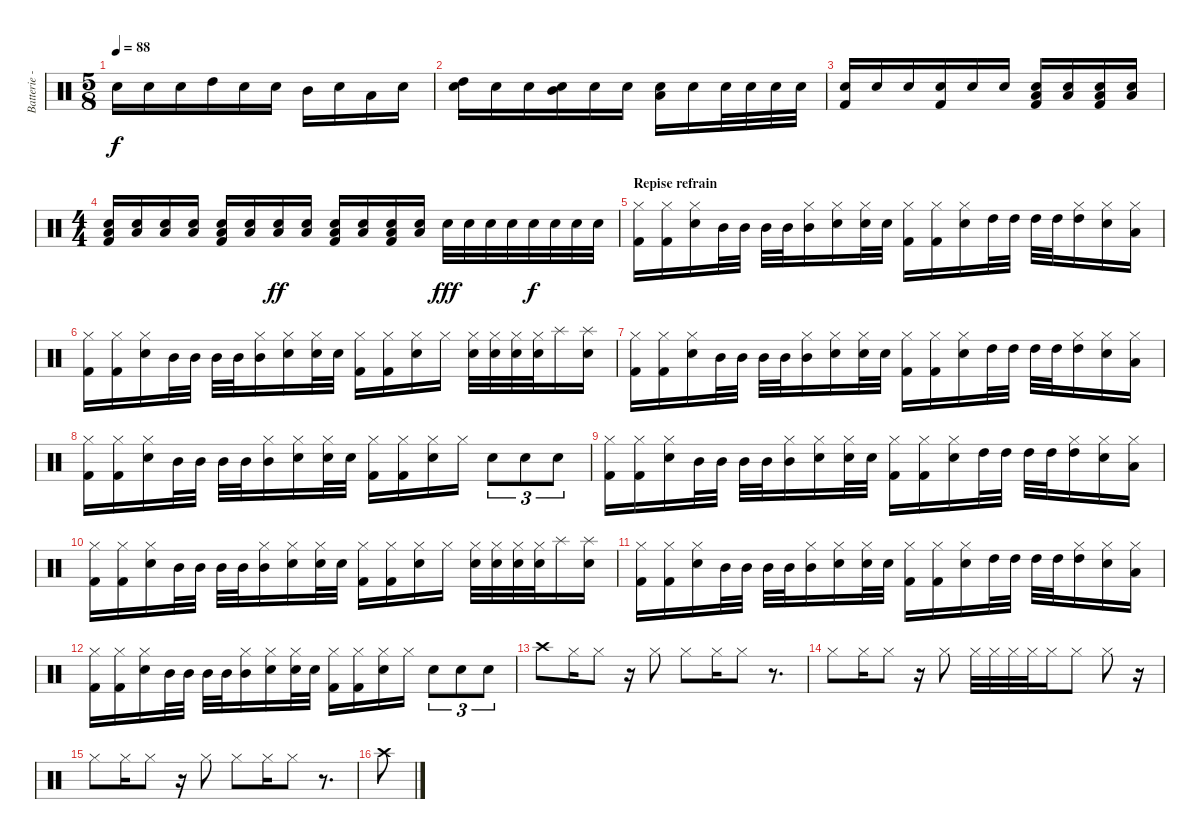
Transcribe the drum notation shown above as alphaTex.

\track ("Batterie - Franz'" "Batterie -") {instrument percussion}
\staff {score}
\articulation defaults
\ts (5 8)
\tempo 88
\clef neutral
\ks c "Electric Snare (hit)".16{dy f} "Electric Snare (hit)".16 "Electric Snare (hit)".16 "High Tom (hit)".16 "Electric Snare (hit)".16 "Electric Snare (hit)".16 "Mid Tom (hit)".16 "Electric Snare (hit)".16 "Low Tom (hit)".16 "Electric Snare (hit)".16
|
("High Tom (hit)" "Electric Snare (hit)").16 "Electric Snare (hit)".16 "Electric Snare (hit)".16 ("Mid Tom (hit)" "Electric Snare (hit)").16 "Electric Snare (hit)".16 "Electric Snare (hit)".16 ("Electric Snare (hit)" "Low Tom (hit)").16 "Electric Snare (hit)".16 "Electric Snare (hit)".32 "Electric Snare (hit)".32 "Electric Snare (hit)".32 "Electric Snare (hit)".32 |
("Electric Snare (hit)" "Kick (hit) 2").16 "Electric Snare (hit)".16 "Electric Snare (hit)".16 ("Electric Snare (hit)" "Kick (hit) 2").16 "Electric Snare (hit)".16 "Electric Snare (hit)".16 ("Electric Snare (hit)" "Low Tom (hit)" "Kick (hit) 2").16 ("Electric Snare (hit)" "Low Tom (hit)").16 ("Electric Snare (hit)" "Low Tom (hit)" "Kick (hit) 2").16 ("Electric Snare (hit)" "Low Tom (hit)").16 |
\ts (4 4)
("Electric Snare (hit)" "Low Tom (hit)" "Kick (hit) 2").16 ("Electric Snare (hit)" "Low Tom (hit)").16 ("Electric Snare (hit)" "Low Tom (hit)").16 ("Electric Snare (hit)" "Low Tom (hit)").16 ("Electric Snare (hit)" "Low Tom (hit)" "Kick (hit) 2").16 ("Electric Snare (hit)" "Low Tom (hit)").16 ("Electric Snare (hit)" "Low Tom (hit)").16{dy ff} ("Electric Snare (hit)" "Low Tom (hit)").16 ("Electric Snare (hit)" "Low Tom (hit)" "Kick (hit) 2").16 ("Electric Snare (hit)" "Low Tom (hit)").16 ("Electric Snare (hit)" "Low Tom (hit)" "Kick (hit) 2").16 ("Electric Snare (hit)" "Low Tom (hit)").16 "Electric Snare (hit)".32{dy fff} "Electric Snare (hit)".32 "Electric Snare (hit)".32 "Electric Snare (hit)".32 "Electric Snare (hit)".32{dy f} "Electric Snare (hit)".32 "Electric Snare (hit)".32 "Electric Snare (hit)".32 |
\section ("" "Repise refrain")
("Hi-Hat (closed)" "Kick (hit) 2").16 ("Hi-Hat (closed)" "Kick (hit) 2").16 ("Hi-Hat (closed)" "Electric Snare (hit)").16 "Mid Tom (hit)".32 "Mid Tom (hit)".32 "Mid Tom (hit)".32 "Mid Tom (hit)".32 ("Hi-Hat (closed)" "Mid Tom (hit)").16 ("Hi-Hat (closed)" "Electric Snare (hit)").16 ("Hi-Hat (closed)" "Electric Snare (hit)").32 "Electric Snare (hit)".32 ("Hi-Hat (closed)" "Kick (hit) 2").16 ("Hi-Hat (closed)" "Kick (hit) 2").16 ("Hi-Hat (closed)" "Electric Snare (hit)").16 "High Tom (hit)".32 "High Tom (hit)".32 "High Tom (hit)".32 "High Tom (hit)".32 ("Hi-Hat (closed)" "High Tom (hit)").16 ("Hi-Hat (closed)" "Electric Snare (hit)").16 ("Hi-Hat (closed)" "Low Tom (hit)").16 |
("Hi-Hat (closed)" "Kick (hit) 2").16 ("Hi-Hat (closed)" "Kick (hit) 2").16 ("Hi-Hat (closed)" "Electric Snare (hit)").16 "Mid Tom (hit)".32 "Mid Tom (hit)".32 "Mid Tom (hit)".32 "Mid Tom (hit)".32 ("Hi-Hat (closed)" "Mid Tom (hit)").16 ("Hi-Hat (closed)" "Electric Snare (hit)").16 ("Hi-Hat (closed)" "Electric Snare (hit)").32 "Electric Snare (hit)".32 ("Hi-Hat (closed)" "Kick (hit) 2").16 ("Hi-Hat (closed)" "Kick (hit) 2").16 ("Hi-Hat (closed)" "Electric Snare (hit)").16 "Hi-Hat (closed)".16 ("Hi-Hat (closed)" "Electric Snare (hit)").32 ("Hi-Hat (closed)" "Electric Snare (hit)").32 ("Hi-Hat (closed)" "Electric Snare (hit)").32 ("Hi-Hat (closed)" "Electric Snare (hit)").32 "Splash (hit)".16 ("Splash (hit)" "Electric Snare (hit)").16 |
("Hi-Hat (closed)" "Kick (hit) 2").16 ("Hi-Hat (closed)" "Kick (hit) 2").16 ("Hi-Hat (closed)" "Electric Snare (hit)").16 "Mid Tom (hit)".32 "Mid Tom (hit)".32 "Mid Tom (hit)".32 "Mid Tom (hit)".32 ("Hi-Hat (closed)" "Mid Tom (hit)").16 ("Hi-Hat (closed)" "Electric Snare (hit)").16 ("Hi-Hat (closed)" "Electric Snare (hit)").32 "Electric Snare (hit)".32 ("Hi-Hat (closed)" "Kick (hit) 2").16 ("Hi-Hat (closed)" "Kick (hit) 2").16 ("Hi-Hat (closed)" "Electric Snare (hit)").16 "High Tom (hit)".32 "High Tom (hit)".32 "High Tom (hit)".32 "High Tom (hit)".32 ("Hi-Hat (closed)" "High Tom (hit)").16 ("Hi-Hat (closed)" "Electric Snare (hit)").16 ("Hi-Hat (closed)" "Low Tom (hit)").16 |
("Hi-Hat (closed)" "Kick (hit) 2").16 ("Hi-Hat (closed)" "Kick (hit) 2").16 ("Hi-Hat (closed)" "Electric Snare (hit)").16 "Mid Tom (hit)".32 "Mid Tom (hit)".32 "Mid Tom (hit)".32 "Mid Tom (hit)".32 ("Hi-Hat (closed)" "Mid Tom (hit)").16 ("Hi-Hat (closed)" "Electric Snare (hit)").16 ("Hi-Hat (closed)" "Electric Snare (hit)").32 "Electric Snare (hit)".32 ("Hi-Hat (closed)" "Kick (hit) 2").16 ("Hi-Hat (closed)" "Kick (hit) 2").16 ("Hi-Hat (closed)" "Electric Snare (hit)").16 "Hi-Hat (closed)".16 "Electric Snare (hit)".8{tu (3 2)} "Electric Snare (hit)".8{tu (3 2)} "Electric Snare (hit)".8{tu (3 2)} |
("Hi-Hat (closed)" "Kick (hit) 2").16 ("Hi-Hat (closed)" "Kick (hit) 2").16 ("Hi-Hat (closed)" "Electric Snare (hit)").16 "Mid Tom (hit)".32 "Mid Tom (hit)".32 "Mid Tom (hit)".32 "Mid Tom (hit)".32 ("Hi-Hat (closed)" "Mid Tom (hit)").16 ("Hi-Hat (closed)" "Electric Snare (hit)").16 ("Hi-Hat (closed)" "Electric Snare (hit)").32 "Electric Snare (hit)".32 ("Hi-Hat (closed)" "Kick (hit) 2").16 ("Hi-Hat (closed)" "Kick (hit) 2").16 ("Hi-Hat (closed)" "Electric Snare (hit)").16 "High Tom (hit)".32 "High Tom (hit)".32 "High Tom (hit)".32 "High Tom (hit)".32 ("Hi-Hat (closed)" "High Tom (hit)").16 ("Hi-Hat (closed)" "Electric Snare (hit)").16 ("Hi-Hat (closed)" "Low Tom (hit)").16 |
("Hi-Hat (closed)" "Kick (hit) 2").16 ("Hi-Hat (closed)" "Kick (hit) 2").16 ("Hi-Hat (closed)" "Electric Snare (hit)").16 "Mid Tom (hit)".32 "Mid Tom (hit)".32 "Mid Tom (hit)".32 "Mid Tom (hit)".32 ("Hi-Hat (closed)" "Mid Tom (hit)").16 ("Hi-Hat (closed)" "Electric Snare (hit)").16 ("Hi-Hat (closed)" "Electric Snare (hit)").32 "Electric Snare (hit)".32 ("Hi-Hat (closed)" "Kick (hit) 2").16 ("Hi-Hat (closed)" "Kick (hit) 2").16 ("Hi-Hat (closed)" "Electric Snare (hit)").16 "Hi-Hat (closed)".16 ("Hi-Hat (closed)" "Electric Snare (hit)").32 ("Hi-Hat (closed)" "Electric Snare (hit)").32 ("Hi-Hat (closed)" "Electric Snare (hit)").32 ("Hi-Hat (closed)" "Electric Snare (hit)").32 "Splash (hit)".16 ("Splash (hit)" "Electric Snare (hit)").16 |
("Hi-Hat (closed)" "Kick (hit) 2").16 ("Hi-Hat (closed)" "Kick (hit) 2").16 ("Hi-Hat (closed)" "Electric Snare (hit)").16 "Mid Tom (hit)".32 "Mid Tom (hit)".32 "Mid Tom (hit)".32 "Mid Tom (hit)".32 ("Hi-Hat (closed)" "Mid Tom (hit)").16 ("Hi-Hat (closed)" "Electric Snare (hit)").16 ("Hi-Hat (closed)" "Electric Snare (hit)").32 "Electric Snare (hit)".32 ("Hi-Hat (closed)" "Kick (hit) 2").16 ("Hi-Hat (closed)" "Kick (hit) 2").16 ("Hi-Hat (closed)" "Electric Snare (hit)").16 "High Tom (hit)".32 "High Tom (hit)".32 "High Tom (hit)".32 "High Tom (hit)".32 ("Hi-Hat (closed)" "High Tom (hit)").16 ("Hi-Hat (closed)" "Electric Snare (hit)").16 ("Hi-Hat (closed)" "Low Tom (hit)").16 |
("Hi-Hat (closed)" "Kick (hit) 2").16 ("Hi-Hat (closed)" "Kick (hit) 2").16 ("Hi-Hat (closed)" "Electric Snare (hit)").16 "Mid Tom (hit)".32 "Mid Tom (hit)".32 "Mid Tom (hit)".32 "Mid Tom (hit)".32 ("Hi-Hat (closed)" "Mid Tom (hit)").16 ("Hi-Hat (closed)" "Electric Snare (hit)").16 ("Hi-Hat (closed)" "Electric Snare (hit)").32 "Electric Snare (hit)".32 ("Hi-Hat (closed)" "Kick (hit) 2").16 ("Hi-Hat (closed)" "Kick (hit) 2").16 ("Hi-Hat (closed)" "Electric Snare (hit)").16 "Hi-Hat (closed)".16 "Electric Snare (hit)".8{tu (3 2)} "Electric Snare (hit)".8{tu (3 2)} "Electric Snare (hit)".8{tu (3 2)} |
"Crash high (hit)".8 "Hi-Hat (closed)".16 "Hi-Hat (closed)".8 r.16 "Hi-Hat (closed)".8 "Hi-Hat (closed)".8 "Hi-Hat (closed)".16 "Hi-Hat (closed)".8 r.8{d} |
"Hi-Hat (closed)".8 "Hi-Hat (closed)".16 "Hi-Hat (closed)".8 r.16 "Hi-Hat (closed)".8 "Hi-Hat (closed)".32 "Hi-Hat (closed)".32 "Hi-Hat (closed)".32 "Hi-Hat (closed)".32 "Hi-Hat (closed)".16 "Hi-Hat (closed)".8 "Hi-Hat (closed)".8 r.16 |
"Hi-Hat (closed)".8 "Hi-Hat (closed)".16 "Hi-Hat (closed)".8 r.16 "Hi-Hat (closed)".8 "Hi-Hat (closed)".8 "Hi-Hat (closed)".16 "Hi-Hat (closed)".8 r.8{d} |
"Crash high (hit)".8
